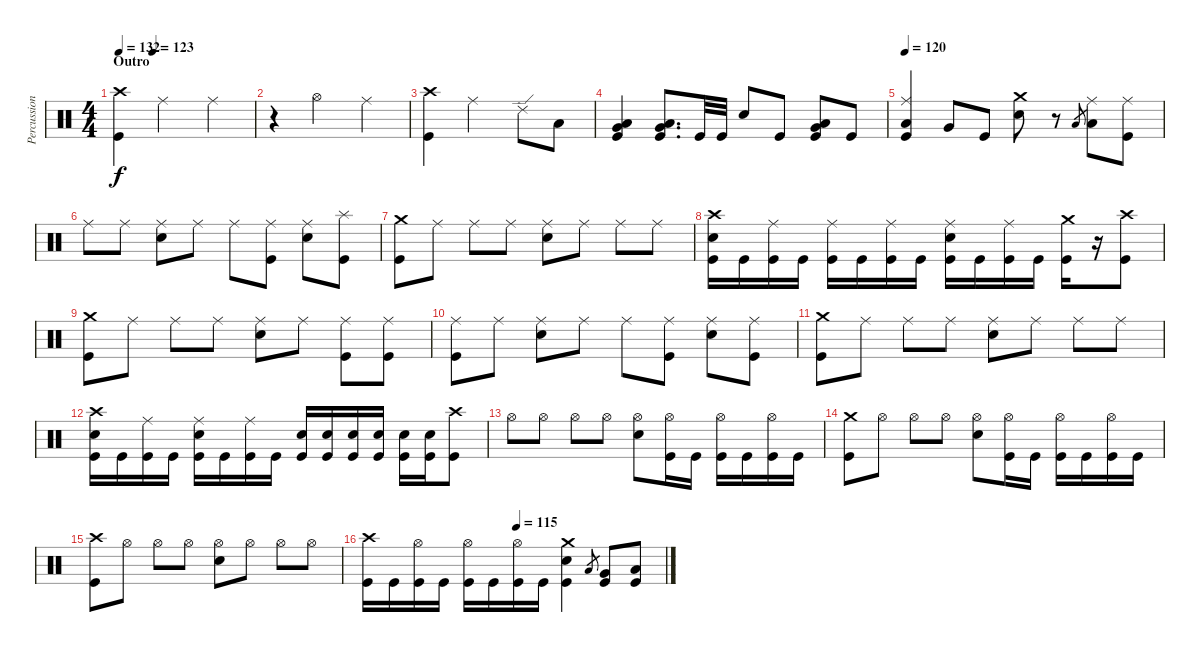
\track ("Percussion" "Percussion") {instrument percussion}
\staff {score}
\articulation defaults
\ts (4 4)
\section ("" "Outro")
\tempo 132
\tempo (123 0.25)
\clef neutral
\ks c
("Kick (hit)" "Crash high (hit)").4{dy f} "Ride (middle)".2 "Ride (middle)".4 |
r.4 "Hi-Hat (open)".2 "Ride (middle)".4 |
("Kick (hit)" "Crash high (hit)").4 "Ride (middle)".2 "Ride (edge) 2".8 "Low Floor Tom (hit)".8 |
("Kick (hit)" "Low Floor Tom (hit)" "Very Low Tom (hit)").4{bd 120} ("Kick (hit)" "Low Floor Tom (hit)" "Very Low Tom (hit)").8{d bd 120} "Kick (hit)".32 "Kick (hit)".32 "Snare (hit) 2".8 "Kick (hit)".8 ("Kick (hit)" "Low Floor Tom (hit)" "Very Low Tom (hit)").8{bd 120} "Kick (hit)".8 |
\tempo 120
("Ride (middle)" "Low Floor Tom (hit)" "Kick (hit)").4 "Very Low Tom (hit)".8 "Kick (hit)".8 ("Crash medium (hit)" "Snare (hit) 2").8 r.8 "Low Floor Tom (hit)".8{gr} ("Ride (middle)" "Low Floor Tom (hit)").8 ("Kick (hit)" "Ride (middle)").8 |
"Ride (middle)".8 "Ride (middle)".8 ("Ride (middle)" "Snare (hit) 2").8 "Ride (middle)".8 "Ride (middle)".8 ("Ride (middle)" "Kick (hit)").8 ("Ride (middle)" "Snare (hit) 2").8 ("Splash (hit)" "Kick (hit)").8 |
("Crash medium (hit)" "Kick (hit)").8 "Ride (middle)".8 "Ride (middle)".8 "Ride (middle)".8 ("Ride (middle)" "Snare (hit) 2").8 "Ride (middle)".8 "Ride (middle)".8 "Ride (middle)".8 |
("Kick (hit)" "Crash high (hit)" "Snare (hit) 2").16 "Kick (hit)".16 ("Kick (hit)" "Ride (middle)").16 "Kick (hit)".16 ("Kick (hit)" "Ride (middle)").16 "Kick (hit)".16 ("Kick (hit)" "Ride (middle)").16 "Kick (hit)".16 ("Kick (hit)" "Ride (middle)" "Snare (hit) 2").16 "Kick (hit)".16 ("Kick (hit)" "Ride (middle)").16 "Kick (hit)".16 ("Kick (hit)" "Crash medium (hit)").16 r.16 ("Kick (hit)" "Crash high (hit)").8 |
("Kick (hit)" "Crash medium (hit)").8 "Ride (middle)".8 "Ride (middle)".8 "Ride (middle)".8 ("Snare (hit) 2" "Ride (middle)").8 "Ride (middle)".8 ("Kick (hit)" "Ride (middle)").8 ("Kick (hit)" "Ride (middle)").8 |
("Kick (hit)" "Ride (middle)").8 "Ride (middle)".8 ("Snare (hit) 2" "Ride (middle)").8 "Ride (middle)".8 "Ride (middle)".8 ("Kick (hit)" "Ride (middle)").8 ("Snare (hit) 2" "Ride (middle)").8 ("Kick (hit)" "Ride (middle)").8 |
("Kick (hit)" "Crash medium (hit)").8 "Ride (middle)".8 "Ride (middle)".8 "Ride (middle)".8 ("Snare (hit) 2" "Ride (middle)").8 "Ride (middle)".8 "Ride (middle)".8 "Ride (middle)".8 |
("Kick (hit)" "Crash high (hit)" "Snare (hit) 2").16 "Kick (hit)".16 ("Kick (hit)" "Ride (middle)").16 "Kick (hit)".16 ("Kick (hit)" "Ride (middle)" "Snare (hit) 2").16 "Kick (hit)".16 ("Kick (hit)" "Ride (middle)").16 "Kick (hit)".16 ("Kick (hit)" "Snare (hit) 2").16 ("Kick (hit)" "Snare (hit) 2").16 ("Kick (hit)" "Snare (hit) 2").16 ("Kick (hit)" "Snare (hit) 2").16 ("Kick (hit)" "Snare (hit) 2").16 ("Kick (hit)" "Snare (hit) 2").16 ("Kick (hit)" "Crash high (hit)").8 |
"Hi-Hat (open)".8 "Hi-Hat (open)".8 "Hi-Hat (open)".8 "Hi-Hat (open)".8 ("Snare (hit) 2" "Hi-Hat (open)").8 ("Kick (hit)" "Hi-Hat (open)").16 "Kick (hit)".16 ("Kick (hit)" "Hi-Hat (open)").16 "Kick (hit)".16 ("Kick (hit)" "Hi-Hat (open)").16 "Kick (hit)".16 |
("Kick (hit)" "Crash medium (hit)").8 "Hi-Hat (open)".8 "Hi-Hat (open)".8 "Hi-Hat (open)".8 ("Snare (hit) 2" "Hi-Hat (open)").8 ("Kick (hit)" "Hi-Hat (open)").16 "Kick (hit)".16 ("Kick (hit)" "Hi-Hat (open)").16 "Kick (hit)".16 ("Kick (hit)" "Hi-Hat (open)").16 "Kick (hit)".16 |
("Kick (hit)" "Crash high (hit)").8 "Hi-Hat (open)".8 "Hi-Hat (open)".8 "Hi-Hat (open)".8 ("Snare (hit) 2" "Hi-Hat (open)").8 "Hi-Hat (open)".8 "Hi-Hat (open)".8 "Hi-Hat (open)".8 |
\tempo (115 0.5)
("Kick (hit)" "Crash high (hit)").16 "Kick (hit)".16 ("Kick (hit)" "Hi-Hat (open)").16 "Kick (hit)".16 ("Kick (hit)" "Hi-Hat (open)").16 "Kick (hit)".16 ("Kick (hit)" "Hi-Hat (open)").16 "Kick (hit)".16 ("Kick (hit)" "Crash medium (hit)" "Snare (hit) 2").4 "Low Floor Tom (hit)".8{gr} ("Kick (hit)" "Very Low Tom (hit)").8 ("Kick (hit)" "Low Floor Tom (hit)").8
